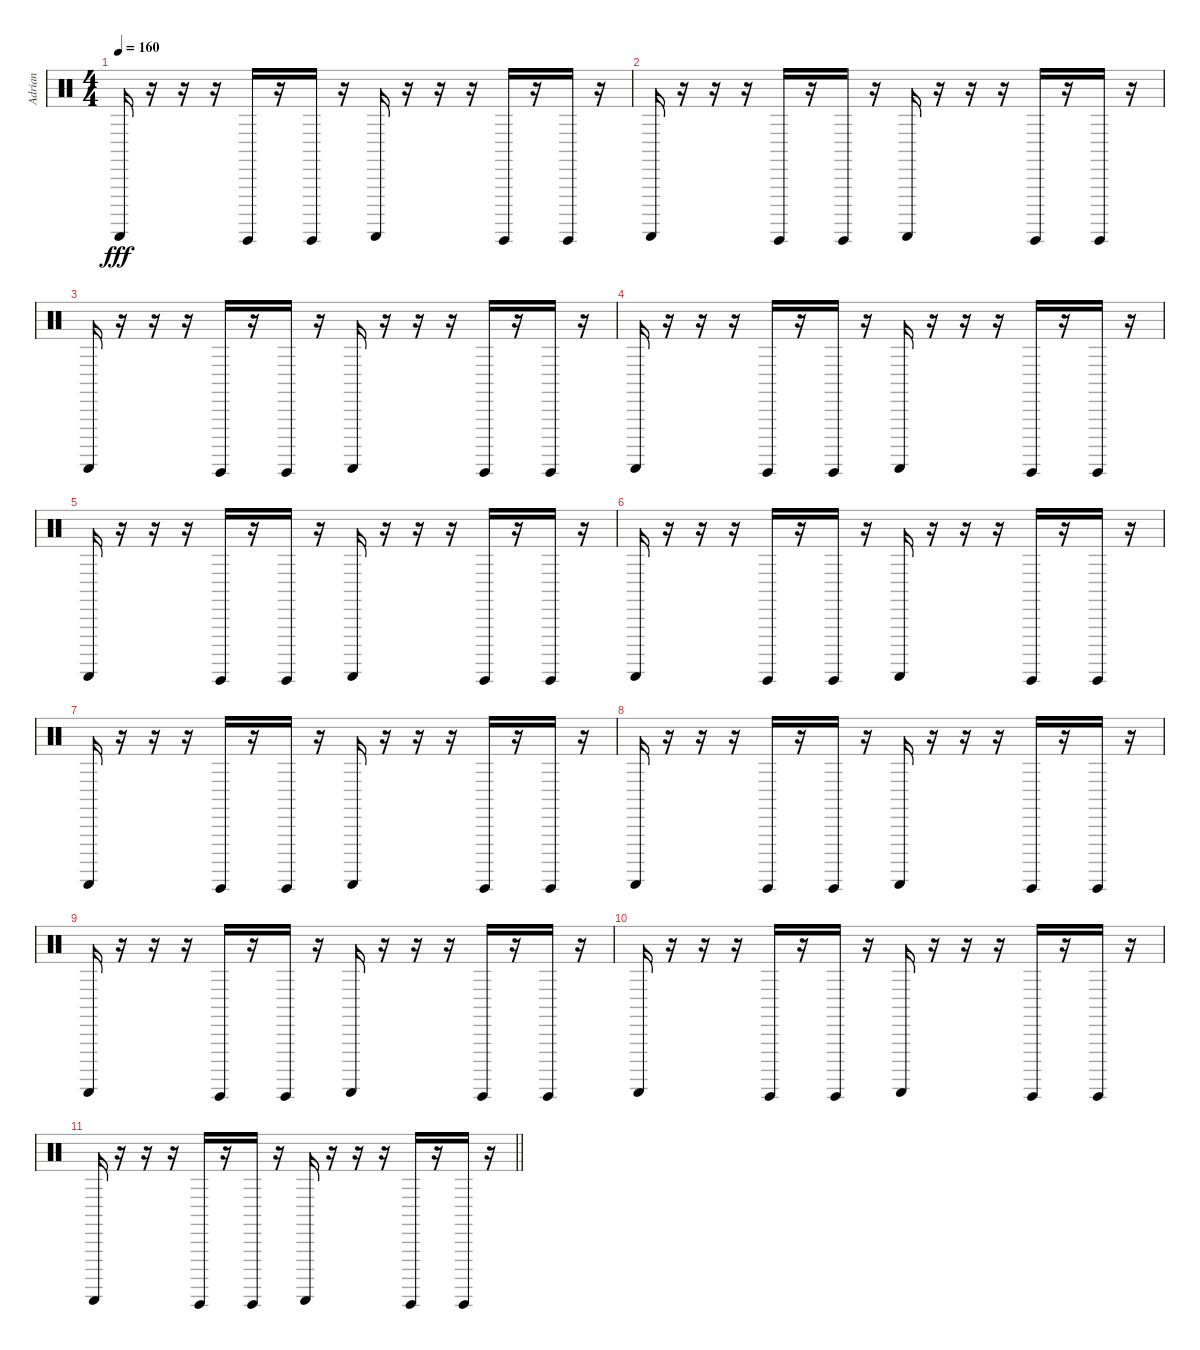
\track ("Adrian" "Adrian") {instrument percussion}
\staff {score}
\articulation defaults
\ts (4 4)
\tempo 160
\clef neutral
\ks c "Guiro (scrap-return)".16{dy fff}
r.16 r.16 r.16 "Guiro (hit)".16 r.16 "Guiro (hit)".16 r.16 "Guiro (scrap-return)".16 r.16 r.16 r.16 "Guiro (hit)".16 r.16 "Guiro (hit)".16 r.16 |
"Guiro (scrap-return)".16 r.16 r.16 r.16 "Guiro (hit)".16 r.16 "Guiro (hit)".16 r.16 "Guiro (scrap-return)".16 r.16 r.16 r.16 "Guiro (hit)".16 r.16 "Guiro (hit)".16 r.16 |
"Guiro (scrap-return)".16 r.16 r.16 r.16 "Guiro (hit)".16 r.16 "Guiro (hit)".16 r.16 "Guiro (scrap-return)".16 r.16 r.16 r.16 "Guiro (hit)".16 r.16 "Guiro (hit)".16 r.16 |
"Guiro (scrap-return)".16 r.16 r.16 r.16 "Guiro (hit)".16 r.16 "Guiro (hit)".16 r.16 "Guiro (scrap-return)".16 r.16 r.16 r.16 "Guiro (hit)".16 r.16 "Guiro (hit)".16 r.16 |
"Guiro (scrap-return)".16 r.16 r.16 r.16 "Guiro (hit)".16 r.16 "Guiro (hit)".16 r.16 "Guiro (scrap-return)".16 r.16 r.16 r.16 "Guiro (hit)".16 r.16 "Guiro (hit)".16 r.16 |
"Guiro (scrap-return)".16 r.16 r.16 r.16 "Guiro (hit)".16 r.16 "Guiro (hit)".16 r.16 "Guiro (scrap-return)".16 r.16 r.16 r.16 "Guiro (hit)".16 r.16 "Guiro (hit)".16 r.16 |
"Guiro (scrap-return)".16 r.16 r.16 r.16 "Guiro (hit)".16 r.16 "Guiro (hit)".16 r.16 "Guiro (scrap-return)".16 r.16 r.16 r.16 "Guiro (hit)".16 r.16 "Guiro (hit)".16 r.16 |
"Guiro (scrap-return)".16 r.16 r.16 r.16 "Guiro (hit)".16 r.16 "Guiro (hit)".16 r.16 "Guiro (scrap-return)".16 r.16 r.16 r.16 "Guiro (hit)".16 r.16 "Guiro (hit)".16 r.16 |
"Guiro (scrap-return)".16 r.16 r.16 r.16 "Guiro (hit)".16 r.16 "Guiro (hit)".16 r.16 "Guiro (scrap-return)".16 r.16 r.16 r.16 "Guiro (hit)".16 r.16 "Guiro (hit)".16 r.16 |
"Guiro (scrap-return)".16 r.16 r.16 r.16 "Guiro (hit)".16 r.16 "Guiro (hit)".16 r.16 "Guiro (scrap-return)".16 r.16 r.16 r.16 "Guiro (hit)".16 r.16 "Guiro (hit)".16 r.16 |
\barLineRight lightlight "Guiro (scrap-return)".16
r.16 r.16 r.16 "Guiro (hit)".16 r.16 "Guiro (hit)".16 r.16 "Guiro (scrap-return)".16 r.16 r.16 r.16 "Guiro (hit)".16 r.16 "Guiro (hit)".16 r.16
